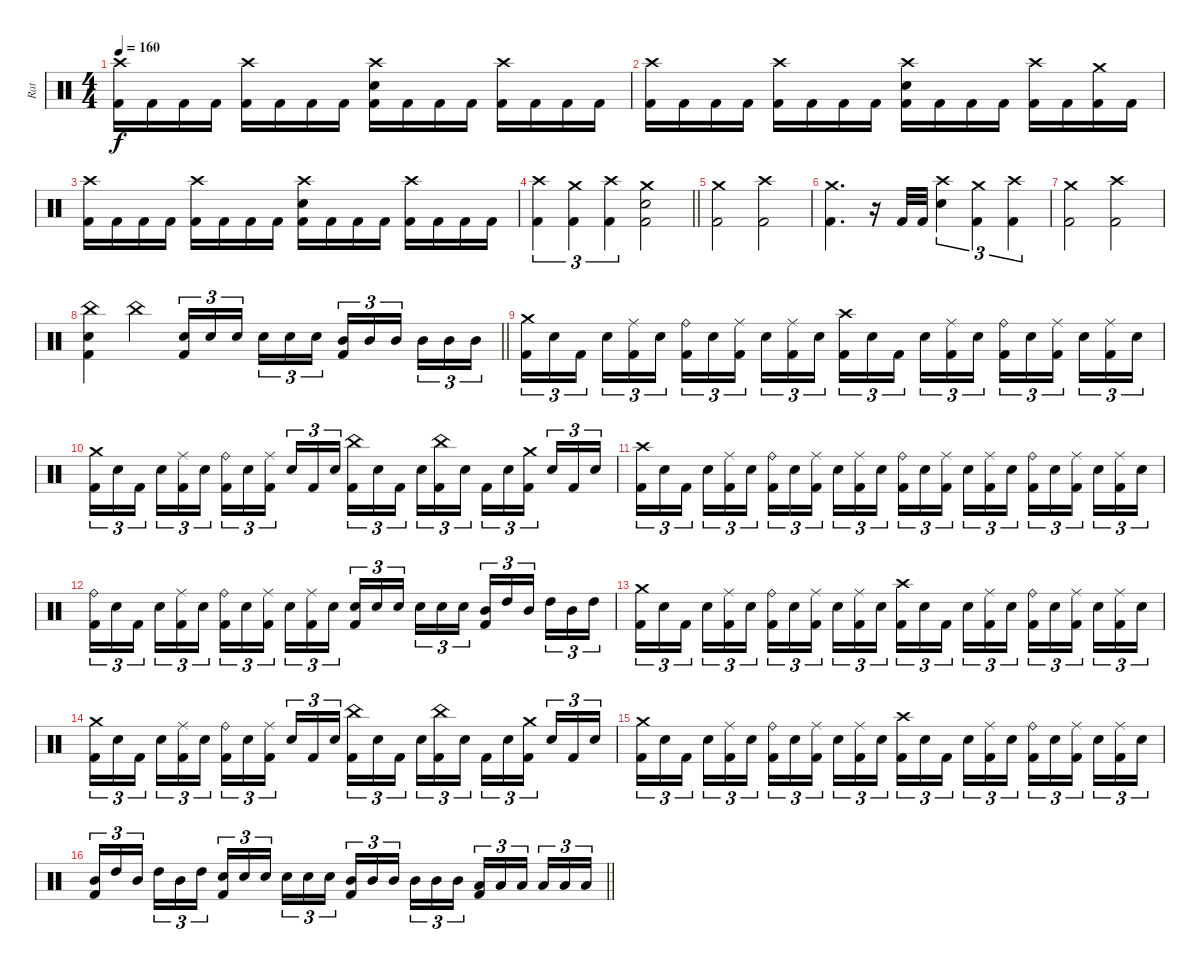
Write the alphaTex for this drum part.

\track ("Rat" "Rat") {instrument percussion}
\staff {score}
\articulation defaults
\ts (4 4)
\tempo 160
\clef neutral
\ks c
("Crash high (hit)" "Kick (hit) 2").16{dy f} "Kick (hit) 2".16 "Kick (hit) 2".16 "Kick (hit) 2".16 ("Crash high (hit)" "Kick (hit) 2").16 "Kick (hit) 2".16 "Kick (hit) 2".16 "Kick (hit) 2".16 ("Crash high (hit)" "Electric Snare (hit)" "Kick (hit) 2").16 "Kick (hit) 2".16 "Kick (hit) 2".16 "Kick (hit) 2".16 ("Crash high (hit)" "Kick (hit) 2").16 "Kick (hit) 2".16 "Kick (hit) 2".16 "Kick (hit) 2".16 |
("Crash high (hit)" "Kick (hit) 2").16 "Kick (hit) 2".16 "Kick (hit) 2".16 "Kick (hit) 2".16 ("Crash high (hit)" "Kick (hit) 2").16 "Kick (hit) 2".16 "Kick (hit) 2".16 "Kick (hit) 2".16 ("Crash high (hit)" "Electric Snare (hit)" "Kick (hit) 2").16 "Kick (hit) 2".16 "Kick (hit) 2".16 "Kick (hit) 2".16 ("Crash high (hit)" "Kick (hit) 2").16 "Kick (hit) 2".16 ("Crash medium (hit)" "Kick (hit) 2").16 "Kick (hit) 2".16 |
("Crash high (hit)" "Kick (hit) 2").16 "Kick (hit) 2".16 "Kick (hit) 2".16 "Kick (hit) 2".16 ("Crash high (hit)" "Kick (hit) 2").16 "Kick (hit) 2".16 "Kick (hit) 2".16 "Kick (hit) 2".16 ("Crash high (hit)" "Electric Snare (hit)" "Kick (hit) 2").16 "Kick (hit) 2".16 "Kick (hit) 2".16 "Kick (hit) 2".16 ("Crash high (hit)" "Kick (hit) 2").16 "Kick (hit) 2".16 "Kick (hit) 2".16 "Kick (hit) 2".16 |
\barLineRight lightlight
("Crash high (hit)" "Kick (hit) 2").4{tu (3 2)} ("Crash medium (hit)" "Kick (hit) 2").4{tu (3 2)} ("Crash high (hit)" "Kick (hit) 2").4{tu (3 2)} ("Crash medium (hit)" "Electric Snare (hit)" "Kick (hit) 2").2 |
("Crash medium (hit)" "Kick (hit) 2").2 ("Crash high (hit)" "Kick (hit) 2").2 |
("Crash medium (hit)" "Kick (hit) 2").4{d} r.16 "Kick (hit) 2".32 "Kick (hit) 2".32 ("Crash high (hit)" "Electric Snare (hit)").4{tu (3 2)} ("Crash medium (hit)" "Kick (hit) 2").4{tu (3 2)} ("Crash high (hit)" "Kick (hit) 2").4{tu (3 2)} |
("Crash medium (hit)" "Kick (hit) 2").2 ("Crash high (hit)" "Kick (hit) 2").2 |
\barLineRight lightlight
("China (hit)" "Electric Snare (hit)" "Kick (hit) 2").4 "China (hit)".4 ("Electric Snare (hit)" "Kick (hit) 2").16{tu (3 2)} "Electric Snare (hit)".16{tu (3 2)} "Electric Snare (hit)".16{tu (3 2) beam splitsecondary} "Electric Snare (hit)".16{tu (3 2)} "Electric Snare (hit)".16{tu (3 2)} "Electric Snare (hit)".16{tu (3 2)} ("Mid Tom (hit)" "Kick (hit) 2").16{tu (3 2)} "Mid Tom (hit)".16{tu (3 2)} "Mid Tom (hit)".16{tu (3 2) beam splitsecondary} "Mid Tom (hit)".16{tu (3 2)} "Mid Tom (hit)".16{tu (3 2)} "Mid Tom (hit)".16{tu (3 2)} |
("Crash medium (hit)" "Kick (hit) 2").16{tu (3 2)} "Electric Snare (hit)".16{tu (3 2)} "Kick (hit) 2".16{tu (3 2) beam splitsecondary} "Electric Snare (hit)".16{tu (3 2)} ("Ride (middle)" "Kick (hit) 2").16{tu (3 2)} "Electric Snare (hit)".16{tu (3 2)} ("Ride (bell)" "Kick (hit) 2").16{tu (3 2)} "Electric Snare (hit)".16{tu (3 2)} ("Ride (middle)" "Kick (hit) 2").16{tu (3 2) beam splitsecondary} "Electric Snare (hit)".16{tu (3 2)} ("Ride (middle)" "Kick (hit) 2").16{tu (3 2)} "Electric Snare (hit)".16{tu (3 2)} ("Crash high (hit)" "Kick (hit) 2").16{tu (3 2)} "Electric Snare (hit)".16{tu (3 2)} "Kick (hit) 2".16{tu (3 2) beam splitsecondary} "Electric Snare (hit)".16{tu (3 2)} ("Ride (middle)" "Kick (hit) 2").16{tu (3 2)} "Electric Snare (hit)".16{tu (3 2)} ("Ride (bell)" "Kick (hit) 2").16{tu (3 2)} "Electric Snare (hit)".16{tu (3 2)} ("Ride (middle)" "Kick (hit) 2").16{tu (3 2) beam splitsecondary} "Electric Snare (hit)".16{tu (3 2)} ("Ride (middle)" "Kick (hit) 2").16{tu (3 2)} "Electric Snare (hit)".16{tu (3 2)} |
("Crash medium (hit)" "Kick (hit) 2").16{tu (3 2)} "Electric Snare (hit)".16{tu (3 2)} "Kick (hit) 2".16{tu (3 2) beam splitsecondary} "Electric Snare (hit)".16{tu (3 2)} ("Ride (middle)" "Kick (hit) 2").16{tu (3 2)} "Electric Snare (hit)".16{tu (3 2)} ("Ride (bell)" "Kick (hit) 2").16{tu (3 2)} "Electric Snare (hit)".16{tu (3 2)} ("Ride (middle)" "Kick (hit) 2").16{tu (3 2) beam splitsecondary} "Electric Snare (hit)".16{tu (3 2)} "Kick (hit) 2".16{tu (3 2)} "Electric Snare (hit)".16{tu (3 2)} ("China (hit)" "Kick (hit) 2").16{tu (3 2)} "Electric Snare (hit)".16{tu (3 2)} "Kick (hit) 2".16{tu (3 2) beam splitsecondary} "Electric Snare (hit)".16{tu (3 2)} ("China (hit)" "Kick (hit) 2").16{tu (3 2)} "Electric Snare (hit)".16{tu (3 2)} "Kick (hit) 2".16{tu (3 2)} "Electric Snare (hit)".16{tu (3 2)} ("Crash medium (hit)" "Kick (hit) 2").16{tu (3 2) beam splitsecondary} "Electric Snare (hit)".16{tu (3 2)} "Kick (hit) 2".16{tu (3 2)} "Electric Snare (hit)".16{tu (3 2)} |
("Crash high (hit)" "Kick (hit) 2").16{tu (3 2)} "Electric Snare (hit)".16{tu (3 2)} "Kick (hit) 2".16{tu (3 2) beam splitsecondary} "Electric Snare (hit)".16{tu (3 2)} ("Ride (middle)" "Kick (hit) 2").16{tu (3 2)} "Electric Snare (hit)".16{tu (3 2)} ("Ride (bell)" "Kick (hit) 2").16{tu (3 2)} "Electric Snare (hit)".16{tu (3 2)} ("Ride (middle)" "Kick (hit) 2").16{tu (3 2) beam splitsecondary} "Electric Snare (hit)".16{tu (3 2)} ("Ride (middle)" "Kick (hit) 2").16{tu (3 2)} "Electric Snare (hit)".16{tu (3 2)} ("Ride (bell)" "Kick (hit) 2").16{tu (3 2)} "Electric Snare (hit)".16{tu (3 2)} ("Ride (middle)" "Kick (hit) 2").16{tu (3 2) beam splitsecondary} "Electric Snare (hit)".16{tu (3 2)} ("Ride (middle)" "Kick (hit) 2").16{tu (3 2)} "Electric Snare (hit)".16{tu (3 2)} ("Ride (bell)" "Kick (hit) 2").16{tu (3 2)} "Electric Snare (hit)".16{tu (3 2)} ("Ride (middle)" "Kick (hit) 2").16{tu (3 2) beam splitsecondary} "Electric Snare (hit)".16{tu (3 2)} ("Ride (middle)" "Kick (hit) 2").16{tu (3 2)} "Electric Snare (hit)".16{tu (3 2)} |
("Ride (bell)" "Kick (hit) 2").16{tu (3 2)} "Electric Snare (hit)".16{tu (3 2)} "Kick (hit) 2".16{tu (3 2) beam splitsecondary} "Electric Snare (hit)".16{tu (3 2)} ("Ride (middle)" "Kick (hit) 2").16{tu (3 2)} "Electric Snare (hit)".16{tu (3 2)} ("Ride (bell)" "Kick (hit) 2").16{tu (3 2)} "Electric Snare (hit)".16{tu (3 2)} ("Ride (middle)" "Kick (hit) 2").16{tu (3 2) beam splitsecondary} "Electric Snare (hit)".16{tu (3 2)} ("Ride (middle)" "Kick (hit) 2").16{tu (3 2)} "Electric Snare (hit)".16{tu (3 2)} ("Electric Snare (hit)" "Kick (hit) 2").16{tu (3 2)} "Electric Snare (hit)".16{tu (3 2)} "Electric Snare (hit)".16{tu (3 2) beam splitsecondary} "Electric Snare (hit)".16{tu (3 2)} "Electric Snare (hit)".16{tu (3 2)} "Electric Snare (hit)".16{tu (3 2)} ("Mid Tom (hit)" "Kick (hit) 2").16{tu (3 2)} "High Tom (hit)".16{tu (3 2)} "Mid Tom (hit)".16{tu (3 2) beam splitsecondary} "High Tom (hit)".16{tu (3 2)} "Mid Tom (hit)".16{tu (3 2)} "High Tom (hit)".16{tu (3 2)} |
("Crash medium (hit)" "Kick (hit) 2").16{tu (3 2)} "Electric Snare (hit)".16{tu (3 2)} "Kick (hit) 2".16{tu (3 2) beam splitsecondary} "Electric Snare (hit)".16{tu (3 2)} ("Ride (middle)" "Kick (hit) 2").16{tu (3 2)} "Electric Snare (hit)".16{tu (3 2)} ("Ride (bell)" "Kick (hit) 2").16{tu (3 2)} "Electric Snare (hit)".16{tu (3 2)} ("Ride (middle)" "Kick (hit) 2").16{tu (3 2) beam splitsecondary} "Electric Snare (hit)".16{tu (3 2)} ("Ride (middle)" "Kick (hit) 2").16{tu (3 2)} "Electric Snare (hit)".16{tu (3 2)} ("Crash high (hit)" "Kick (hit) 2").16{tu (3 2)} "Electric Snare (hit)".16{tu (3 2)} "Kick (hit) 2".16{tu (3 2) beam splitsecondary} "Electric Snare (hit)".16{tu (3 2)} ("Ride (middle)" "Kick (hit) 2").16{tu (3 2)} "Electric Snare (hit)".16{tu (3 2)} ("Ride (bell)" "Kick (hit) 2").16{tu (3 2)} "Electric Snare (hit)".16{tu (3 2)} ("Ride (middle)" "Kick (hit) 2").16{tu (3 2) beam splitsecondary} "Electric Snare (hit)".16{tu (3 2)} ("Ride (middle)" "Kick (hit) 2").16{tu (3 2)} "Electric Snare (hit)".16{tu (3 2)} |
("Crash medium (hit)" "Kick (hit) 2").16{tu (3 2)} "Electric Snare (hit)".16{tu (3 2)} "Kick (hit) 2".16{tu (3 2) beam splitsecondary} "Electric Snare (hit)".16{tu (3 2)} ("Ride (middle)" "Kick (hit) 2").16{tu (3 2)} "Electric Snare (hit)".16{tu (3 2)} ("Ride (bell)" "Kick (hit) 2").16{tu (3 2)} "Electric Snare (hit)".16{tu (3 2)} ("Ride (middle)" "Kick (hit) 2").16{tu (3 2) beam splitsecondary} "Electric Snare (hit)".16{tu (3 2)} "Kick (hit) 2".16{tu (3 2)} "Electric Snare (hit)".16{tu (3 2)} ("China (hit)" "Kick (hit) 2").16{tu (3 2)} "Electric Snare (hit)".16{tu (3 2)} "Kick (hit) 2".16{tu (3 2) beam splitsecondary} "Electric Snare (hit)".16{tu (3 2)} ("China (hit)" "Kick (hit) 2").16{tu (3 2)} "Electric Snare (hit)".16{tu (3 2)} "Kick (hit) 2".16{tu (3 2)} "Electric Snare (hit)".16{tu (3 2)} ("Crash medium (hit)" "Kick (hit) 2").16{tu (3 2) beam splitsecondary} "Electric Snare (hit)".16{tu (3 2)} "Kick (hit) 2".16{tu (3 2)} "Electric Snare (hit)".16{tu (3 2)} |
("Crash medium (hit)" "Kick (hit) 2").16{tu (3 2)} "Electric Snare (hit)".16{tu (3 2)} "Kick (hit) 2".16{tu (3 2) beam splitsecondary} "Electric Snare (hit)".16{tu (3 2)} ("Ride (middle)" "Kick (hit) 2").16{tu (3 2)} "Electric Snare (hit)".16{tu (3 2)} ("Ride (bell)" "Kick (hit) 2").16{tu (3 2)} "Electric Snare (hit)".16{tu (3 2)} ("Ride (middle)" "Kick (hit) 2").16{tu (3 2) beam splitsecondary} "Electric Snare (hit)".16{tu (3 2)} ("Ride (middle)" "Kick (hit) 2").16{tu (3 2)} "Electric Snare (hit)".16{tu (3 2)} ("Crash high (hit)" "Kick (hit) 2").16{tu (3 2)} "Electric Snare (hit)".16{tu (3 2)} "Kick (hit) 2".16{tu (3 2) beam splitsecondary} "Electric Snare (hit)".16{tu (3 2)} ("Ride (middle)" "Kick (hit) 2").16{tu (3 2)} "Electric Snare (hit)".16{tu (3 2)} ("Ride (bell)" "Kick (hit) 2").16{tu (3 2)} "Electric Snare (hit)".16{tu (3 2)} ("Ride (middle)" "Kick (hit) 2").16{tu (3 2) beam splitsecondary} "Electric Snare (hit)".16{tu (3 2)} ("Ride (middle)" "Kick (hit) 2").16{tu (3 2)} "Electric Snare (hit)".16{tu (3 2)} |
\barLineRight lightlight
("Mid Tom (hit)" "Kick (hit) 2").16{tu (3 2)} "High Tom (hit)".16{tu (3 2)} "Mid Tom (hit)".16{tu (3 2) beam splitsecondary} "High Tom (hit)".16{tu (3 2)} "Mid Tom (hit)".16{tu (3 2)} "High Tom (hit)".16{tu (3 2)} ("Electric Snare (hit)" "Kick (hit) 2").16{tu (3 2)} "Electric Snare (hit)".16{tu (3 2)} "Electric Snare (hit)".16{tu (3 2) beam splitsecondary} "Electric Snare (hit)".16{tu (3 2)} "Electric Snare (hit)".16{tu (3 2)} "Electric Snare (hit)".16{tu (3 2)} ("Mid Tom (hit)" "Kick (hit) 2").16{tu (3 2)} "Mid Tom (hit)".16{tu (3 2)} "Mid Tom (hit)".16{tu (3 2) beam splitsecondary} "Mid Tom (hit)".16{tu (3 2)} "Mid Tom (hit)".16{tu (3 2)} "Mid Tom (hit)".16{tu (3 2)} ("Low Tom (hit)" "Kick (hit) 2").16{tu (3 2)} "Low Tom (hit)".16{tu (3 2)} "Low Tom (hit)".16{tu (3 2) beam splitsecondary} "Low Tom (hit)".16{tu (3 2)} "Low Tom (hit)".16{tu (3 2)} "Low Tom (hit)".16{tu (3 2)}
